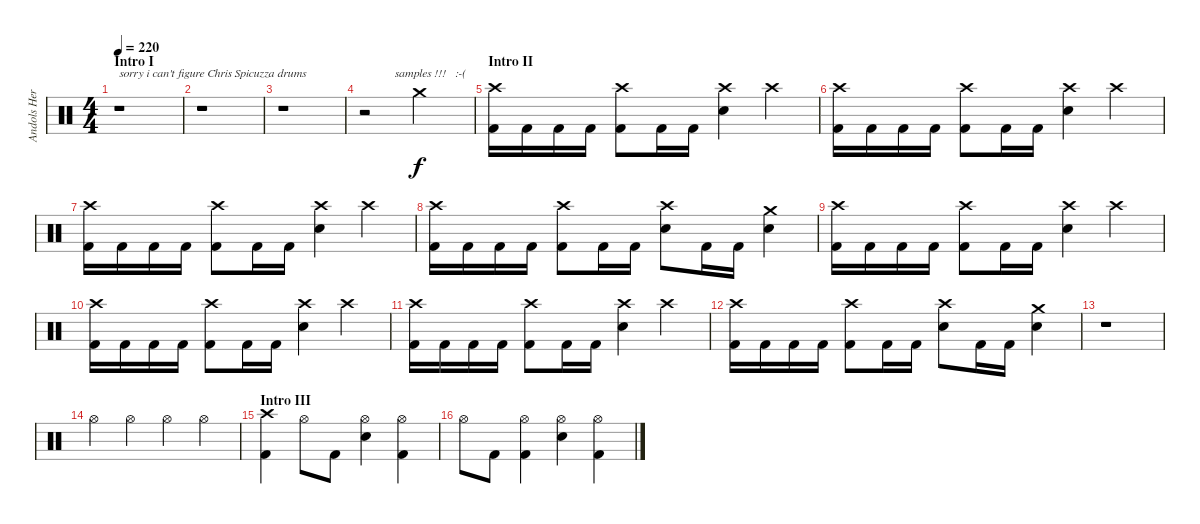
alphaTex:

\track ("Andols Herrick - Drums" "Andols Her") {instrument percussion}
\staff {score}
\articulation defaults
\ts (4 4)
\section ("" "Intro I")
\tempo 220
\clef neutral
\ks c
r.1{txt "sorry i can't figure Chris Spicuzza drums" dy f} |
r.1 |
r.1 |
r.2{txt "          samples !!!   :-("} "Crash medium (hit)".2 |
\section ("" "Intro II")
("Crash high (hit)" "Kick (hit) 2").16 "Kick (hit) 2".16 "Kick (hit) 2".16 "Kick (hit) 2".16 ("Crash high (hit)" "Kick (hit) 2").8 "Kick (hit) 2".16 "Kick (hit) 2".16 ("Crash high (hit)" "Snare (hit) 2").4 "Crash high (hit)".4 |
("Crash high (hit)" "Kick (hit) 2").16 "Kick (hit) 2".16 "Kick (hit) 2".16 "Kick (hit) 2".16 ("Crash high (hit)" "Kick (hit) 2").8 "Kick (hit) 2".16 "Kick (hit) 2".16 ("Crash high (hit)" "Snare (hit) 2").4 "Crash high (hit)".4 |
("Crash high (hit)" "Kick (hit) 2").16 "Kick (hit) 2".16 "Kick (hit) 2".16 "Kick (hit) 2".16 ("Crash high (hit)" "Kick (hit) 2").8 "Kick (hit) 2".16 "Kick (hit) 2".16 ("Crash high (hit)" "Snare (hit) 2").4 "Crash high (hit)".4 |
("Crash high (hit)" "Kick (hit) 2").16 "Kick (hit) 2".16 "Kick (hit) 2".16 "Kick (hit) 2".16 ("Crash high (hit)" "Kick (hit) 2").8 "Kick (hit) 2".16 "Kick (hit) 2".16 ("Crash high (hit)" "Snare (hit) 2").8 "Kick (hit) 2".16 "Kick (hit) 2".16 ("Crash medium (hit)" "Snare (hit) 2").4 |
("Crash high (hit)" "Kick (hit) 2").16 "Kick (hit) 2".16 "Kick (hit) 2".16 "Kick (hit) 2".16 ("Crash high (hit)" "Kick (hit) 2").8 "Kick (hit) 2".16 "Kick (hit) 2".16 ("Crash high (hit)" "Snare (hit) 2").4 "Crash high (hit)".4 |
("Crash high (hit)" "Kick (hit) 2").16 "Kick (hit) 2".16 "Kick (hit) 2".16 "Kick (hit) 2".16 ("Crash high (hit)" "Kick (hit) 2").8 "Kick (hit) 2".16 "Kick (hit) 2".16 ("Crash high (hit)" "Snare (hit) 2").4 "Crash high (hit)".4 |
("Crash high (hit)" "Kick (hit) 2").16 "Kick (hit) 2".16 "Kick (hit) 2".16 "Kick (hit) 2".16 ("Crash high (hit)" "Kick (hit) 2").8 "Kick (hit) 2".16 "Kick (hit) 2".16 ("Crash high (hit)" "Snare (hit) 2").4 "Crash high (hit)".4 |
("Crash high (hit)" "Kick (hit) 2").16 "Kick (hit) 2".16 "Kick (hit) 2".16 "Kick (hit) 2".16 ("Crash high (hit)" "Kick (hit) 2").8 "Kick (hit) 2".16 "Kick (hit) 2".16 ("Crash high (hit)" "Snare (hit) 2").8 "Kick (hit) 2".16 "Kick (hit) 2".16 ("Crash medium (hit)" "Snare (hit) 2").4 |
r.1 |
"Hi-Hat (open)".4 "Hi-Hat (open)".4 "Hi-Hat (open)".4 "Hi-Hat (open)".4 |
\section ("" "Intro III")
("Crash high (hit)" "Kick (hit) 2").4 "Hi-Hat (open)".8 "Kick (hit) 2".8 ("Hi-Hat (open)" "Snare (hit) 2").4 ("Hi-Hat (open)" "Kick (hit) 2").4 |
"Hi-Hat (open)".8 "Kick (hit) 2".8 ("Hi-Hat (open)" "Kick (hit) 2").4 ("Hi-Hat (open)" "Snare (hit) 2").4 ("Hi-Hat (open)" "Kick (hit) 2").4
